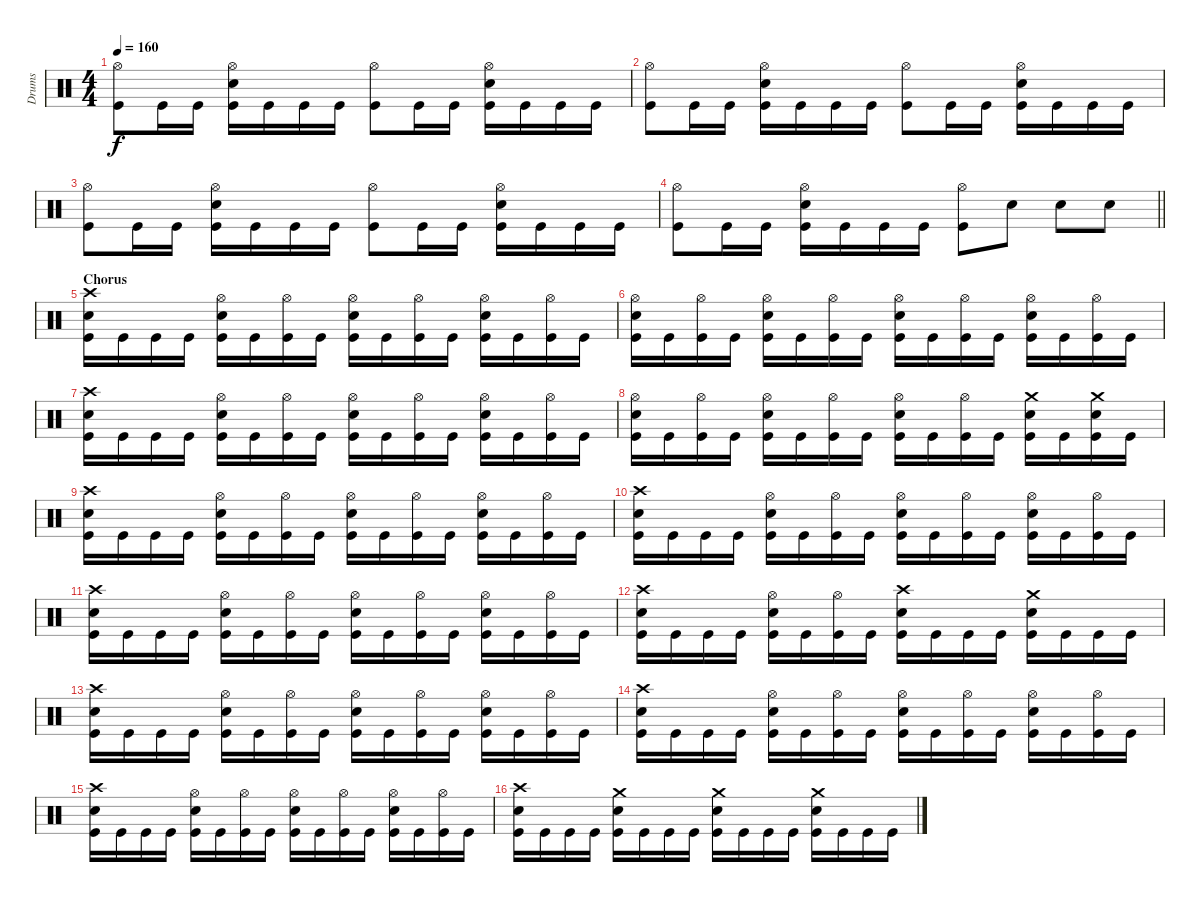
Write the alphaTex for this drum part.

\track ("Drums" "Drums") {instrument percussion}
\staff {score}
\articulation defaults
\ts (4 4)
\tempo 160
\clef neutral
\ks c
("Hi-Hat (open)" "Kick (hit)").8{dy f} "Kick (hit)".16 "Kick (hit)".16 ("Hi-Hat (open)" "Snare (hit) 2" "Kick (hit)").16 "Kick (hit)".16 "Kick (hit)".16 "Kick (hit)".16 ("Hi-Hat (open)" "Kick (hit)").8 "Kick (hit)".16 "Kick (hit)".16 ("Hi-Hat (open)" "Snare (hit) 2" "Kick (hit)").16 "Kick (hit)".16 "Kick (hit)".16 "Kick (hit)".16 |
("Hi-Hat (open)" "Kick (hit)").8 "Kick (hit)".16 "Kick (hit)".16 ("Hi-Hat (open)" "Snare (hit) 2" "Kick (hit)").16 "Kick (hit)".16 "Kick (hit)".16 "Kick (hit)".16 ("Hi-Hat (open)" "Kick (hit)").8 "Kick (hit)".16 "Kick (hit)".16 ("Hi-Hat (open)" "Snare (hit) 2" "Kick (hit)").16 "Kick (hit)".16 "Kick (hit)".16 "Kick (hit)".16 |
("Hi-Hat (open)" "Kick (hit)").8 "Kick (hit)".16 "Kick (hit)".16 ("Hi-Hat (open)" "Snare (hit) 2" "Kick (hit)").16 "Kick (hit)".16 "Kick (hit)".16 "Kick (hit)".16 ("Hi-Hat (open)" "Kick (hit)").8 "Kick (hit)".16 "Kick (hit)".16 ("Hi-Hat (open)" "Snare (hit) 2" "Kick (hit)").16 "Kick (hit)".16 "Kick (hit)".16 "Kick (hit)".16 |
\barLineRight lightlight
("Hi-Hat (open)" "Kick (hit)").8 "Kick (hit)".16 "Kick (hit)".16 ("Hi-Hat (open)" "Snare (hit) 2" "Kick (hit)").16 "Kick (hit)".16 "Kick (hit)".16 "Kick (hit)".16 ("Hi-Hat (open)" "Kick (hit)").8 "Snare (hit) 2".8 "Snare (hit) 2".8 "Snare (hit) 2".8 |
\section ("" "Chorus")
("Crash high (hit)" "Snare (hit) 2" "Kick (hit)").16 "Kick (hit)".16 "Kick (hit)".16 "Kick (hit)".16 ("Hi-Hat (open)" "Snare (hit) 2" "Kick (hit)").16 "Kick (hit)".16 ("Hi-Hat (open)" "Kick (hit)").16 "Kick (hit)".16 ("Hi-Hat (open)" "Snare (hit) 2" "Kick (hit)").16 "Kick (hit)".16 ("Hi-Hat (open)" "Kick (hit)").16 "Kick (hit)".16 ("Hi-Hat (open)" "Snare (hit) 2" "Kick (hit)").16 "Kick (hit)".16 ("Hi-Hat (open)" "Kick (hit)").16 "Kick (hit)".16 |
("Hi-Hat (open)" "Snare (hit) 2" "Kick (hit)").16 "Kick (hit)".16 ("Hi-Hat (open)" "Kick (hit)").16 "Kick (hit)".16 ("Hi-Hat (open)" "Snare (hit) 2" "Kick (hit)").16 "Kick (hit)".16 ("Hi-Hat (open)" "Kick (hit)").16 "Kick (hit)".16 ("Hi-Hat (open)" "Snare (hit) 2" "Kick (hit)").16 "Kick (hit)".16 ("Hi-Hat (open)" "Kick (hit)").16 "Kick (hit)".16 ("Hi-Hat (open)" "Snare (hit) 2" "Kick (hit)").16 "Kick (hit)".16 ("Hi-Hat (open)" "Kick (hit)").16 "Kick (hit)".16 |
("Crash high (hit)" "Snare (hit) 2" "Kick (hit)").16 "Kick (hit)".16 "Kick (hit)".16 "Kick (hit)".16 ("Hi-Hat (open)" "Snare (hit) 2" "Kick (hit)").16 "Kick (hit)".16 ("Hi-Hat (open)" "Kick (hit)").16 "Kick (hit)".16 ("Hi-Hat (open)" "Snare (hit) 2" "Kick (hit)").16 "Kick (hit)".16 ("Hi-Hat (open)" "Kick (hit)").16 "Kick (hit)".16 ("Hi-Hat (open)" "Snare (hit) 2" "Kick (hit)").16 "Kick (hit)".16 ("Hi-Hat (open)" "Kick (hit)").16 "Kick (hit)".16 |
("Hi-Hat (open)" "Snare (hit) 2" "Kick (hit)").16 "Kick (hit)".16 ("Hi-Hat (open)" "Kick (hit)").16 "Kick (hit)".16 ("Hi-Hat (open)" "Snare (hit) 2" "Kick (hit)").16 "Kick (hit)".16 ("Hi-Hat (open)" "Kick (hit)").16 "Kick (hit)".16 ("Hi-Hat (open)" "Snare (hit) 2" "Kick (hit)").16 "Kick (hit)".16 ("Hi-Hat (open)" "Kick (hit)").16 "Kick (hit)".16 ("Crash medium (hit)" "Snare (hit) 2" "Kick (hit)").16 "Kick (hit)".16 ("Crash medium (hit)" "Snare (hit) 2" "Kick (hit)").16 "Kick (hit)".16 |
("Crash high (hit)" "Snare (hit) 2" "Kick (hit)").16 "Kick (hit)".16 "Kick (hit)".16 "Kick (hit)".16 ("Hi-Hat (open)" "Snare (hit) 2" "Kick (hit)").16 "Kick (hit)".16 ("Hi-Hat (open)" "Kick (hit)").16 "Kick (hit)".16 ("Hi-Hat (open)" "Snare (hit) 2" "Kick (hit)").16 "Kick (hit)".16 ("Hi-Hat (open)" "Kick (hit)").16 "Kick (hit)".16 ("Hi-Hat (open)" "Snare (hit) 2" "Kick (hit)").16 "Kick (hit)".16 ("Hi-Hat (open)" "Kick (hit)").16 "Kick (hit)".16 |
("Crash high (hit)" "Snare (hit) 2" "Kick (hit)").16 "Kick (hit)".16 "Kick (hit)".16 "Kick (hit)".16 ("Hi-Hat (open)" "Snare (hit) 2" "Kick (hit)").16 "Kick (hit)".16 ("Hi-Hat (open)" "Kick (hit)").16 "Kick (hit)".16 ("Hi-Hat (open)" "Snare (hit) 2" "Kick (hit)").16 "Kick (hit)".16 ("Hi-Hat (open)" "Kick (hit)").16 "Kick (hit)".16 ("Hi-Hat (open)" "Snare (hit) 2" "Kick (hit)").16 "Kick (hit)".16 ("Hi-Hat (open)" "Kick (hit)").16 "Kick (hit)".16 |
("Crash high (hit)" "Snare (hit) 2" "Kick (hit)").16 "Kick (hit)".16 "Kick (hit)".16 "Kick (hit)".16 ("Hi-Hat (open)" "Snare (hit) 2" "Kick (hit)").16 "Kick (hit)".16 ("Hi-Hat (open)" "Kick (hit)").16 "Kick (hit)".16 ("Hi-Hat (open)" "Snare (hit) 2" "Kick (hit)").16 "Kick (hit)".16 ("Hi-Hat (open)" "Kick (hit)").16 "Kick (hit)".16 ("Hi-Hat (open)" "Snare (hit) 2" "Kick (hit)").16 "Kick (hit)".16 ("Hi-Hat (open)" "Kick (hit)").16 "Kick (hit)".16 |
("Crash high (hit)" "Snare (hit) 2" "Kick (hit)").16 "Kick (hit)".16 "Kick (hit)".16 "Kick (hit)".16 ("Hi-Hat (open)" "Snare (hit) 2" "Kick (hit)").16 "Kick (hit)".16 ("Hi-Hat (open)" "Kick (hit)").16 "Kick (hit)".16 ("Crash high (hit)" "Snare (hit) 2" "Kick (hit)").16 "Kick (hit)".16 "Kick (hit)".16 "Kick (hit)".16 ("Crash medium (hit)" "Snare (hit) 2" "Kick (hit)").16 "Kick (hit)".16 "Kick (hit)".16 "Kick (hit)".16 |
("Crash high (hit)" "Snare (hit) 2" "Kick (hit)").16 "Kick (hit)".16 "Kick (hit)".16 "Kick (hit)".16 ("Hi-Hat (open)" "Snare (hit) 2" "Kick (hit)").16 "Kick (hit)".16 ("Hi-Hat (open)" "Kick (hit)").16 "Kick (hit)".16 ("Hi-Hat (open)" "Snare (hit) 2" "Kick (hit)").16 "Kick (hit)".16 ("Hi-Hat (open)" "Kick (hit)").16 "Kick (hit)".16 ("Hi-Hat (open)" "Snare (hit) 2" "Kick (hit)").16 "Kick (hit)".16 ("Hi-Hat (open)" "Kick (hit)").16 "Kick (hit)".16 |
("Crash high (hit)" "Snare (hit) 2" "Kick (hit)").16 "Kick (hit)".16 "Kick (hit)".16 "Kick (hit)".16 ("Hi-Hat (open)" "Snare (hit) 2" "Kick (hit)").16 "Kick (hit)".16 ("Hi-Hat (open)" "Kick (hit)").16 "Kick (hit)".16 ("Hi-Hat (open)" "Snare (hit) 2" "Kick (hit)").16 "Kick (hit)".16 ("Hi-Hat (open)" "Kick (hit)").16 "Kick (hit)".16 ("Hi-Hat (open)" "Snare (hit) 2" "Kick (hit)").16 "Kick (hit)".16 ("Hi-Hat (open)" "Kick (hit)").16 "Kick (hit)".16 |
("Crash high (hit)" "Snare (hit) 2" "Kick (hit)").16 "Kick (hit)".16 "Kick (hit)".16 "Kick (hit)".16 ("Hi-Hat (open)" "Snare (hit) 2" "Kick (hit)").16 "Kick (hit)".16 ("Hi-Hat (open)" "Kick (hit)").16 "Kick (hit)".16 ("Hi-Hat (open)" "Snare (hit) 2" "Kick (hit)").16 "Kick (hit)".16 ("Hi-Hat (open)" "Kick (hit)").16 "Kick (hit)".16 ("Hi-Hat (open)" "Snare (hit) 2" "Kick (hit)").16 "Kick (hit)".16 ("Hi-Hat (open)" "Kick (hit)").16 "Kick (hit)".16 |
("Crash high (hit)" "Snare (hit) 2" "Kick (hit)").16 "Kick (hit)".16 "Kick (hit)".16 "Kick (hit)".16 ("Crash medium (hit)" "Snare (hit) 2" "Kick (hit)").16 "Kick (hit)".16 "Kick (hit)".16 "Kick (hit)".16 ("Crash medium (hit)" "Snare (hit) 2" "Kick (hit)").16 "Kick (hit)".16 "Kick (hit)".16 "Kick (hit)".16 ("Crash medium (hit)" "Snare (hit) 2" "Kick (hit)").16 "Kick (hit)".16 "Kick (hit)".16 "Kick (hit)".16
